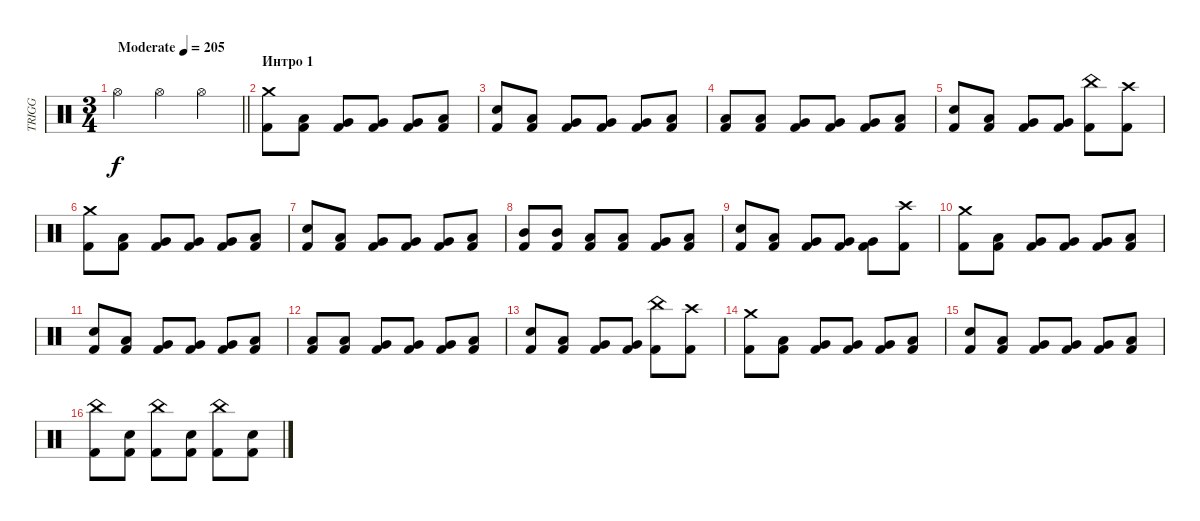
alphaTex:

\track ("TRIGG" "TRIGG") {instrument percussion}
\staff {score}
\articulation defaults
\ts (3 4)
\tempo (205 "Moderate")
\clef neutral
\barLineRight lightlight
\ks c "Hi-Hat (open)".4{dy f} "Hi-Hat (open)".4 "Hi-Hat (open)".4
|
\section ("" "Интро 1")
("Crash medium (hit)" "Kick (hit) 2").8 ("Low Tom (hit)" "Kick (hit) 2").8 ("Very Low Tom (hit)" "Kick (hit) 2").8 ("Very Low Tom (hit)" "Kick (hit) 2").8 ("Very Low Tom (hit)" "Kick (hit) 2").8 ("Low Tom (hit)" "Kick (hit) 2").8 |
("Electric Snare (hit)" "Kick (hit) 2").8 ("Low Tom (hit)" "Kick (hit) 2").8 ("Very Low Tom (hit)" "Kick (hit) 2").8 ("Very Low Tom (hit)" "Kick (hit) 2").8 ("Very Low Tom (hit)" "Kick (hit) 2").8 ("Low Tom (hit)" "Kick (hit) 2").8 |
("Low Tom (hit)" "Kick (hit) 2").8 ("Low Tom (hit)" "Kick (hit) 2").8 ("Very Low Tom (hit)" "Kick (hit) 2").8 ("Very Low Tom (hit)" "Kick (hit) 2").8 ("Very Low Tom (hit)" "Kick (hit) 2").8 ("Low Tom (hit)" "Kick (hit) 2").8 |
("Electric Snare (hit)" "Kick (hit) 2").8 ("Low Tom (hit)" "Kick (hit) 2").8 ("Very Low Tom (hit)" "Kick (hit) 2").8 ("Very Low Tom (hit)" "Kick (hit) 2").8 ("China (hit)" "Kick (hit) 2").8 ("Crash high (hit)" "Kick (hit) 2").8 |
("Crash medium (hit)" "Kick (hit) 2").8 ("Low Tom (hit)" "Kick (hit) 2").8 ("Very Low Tom (hit)" "Kick (hit) 2").8 ("Very Low Tom (hit)" "Kick (hit) 2").8 ("Very Low Tom (hit)" "Kick (hit) 2").8 ("Low Tom (hit)" "Kick (hit) 2").8 |
("Electric Snare (hit)" "Kick (hit) 2").8 ("Low Tom (hit)" "Kick (hit) 2").8 ("Very Low Tom (hit)" "Kick (hit) 2").8 ("Very Low Tom (hit)" "Kick (hit) 2").8 ("Very Low Tom (hit)" "Kick (hit) 2").8 ("Low Tom (hit)" "Kick (hit) 2").8 |
("Mid Tom (hit)" "Kick (hit) 2").8 ("Mid Tom (hit)" "Kick (hit) 2").8 ("Low Tom (hit)" "Kick (hit) 2").8 ("Low Tom (hit)" "Kick (hit) 2").8 ("Very Low Tom (hit)" "Kick (hit) 2").8 ("Low Tom (hit)" "Kick (hit) 2").8 |
("Electric Snare (hit)" "Kick (hit) 2").8 ("Low Tom (hit)" "Kick (hit) 2").8 ("Very Low Tom (hit)" "Kick (hit) 2").8 ("Very Low Tom (hit)" "Kick (hit) 2").8 ("Very Low Tom (hit)" "Kick (hit) 2").8 ("Crash high (hit)" "Kick (hit) 2").8 |
("Crash medium (hit)" "Kick (hit) 2").8 ("Low Tom (hit)" "Kick (hit) 2").8 ("Very Low Tom (hit)" "Kick (hit) 2").8 ("Very Low Tom (hit)" "Kick (hit) 2").8 ("Very Low Tom (hit)" "Kick (hit) 2").8 ("Low Tom (hit)" "Kick (hit) 2").8 |
("Electric Snare (hit)" "Kick (hit) 2").8 ("Low Tom (hit)" "Kick (hit) 2").8 ("Very Low Tom (hit)" "Kick (hit) 2").8 ("Very Low Tom (hit)" "Kick (hit) 2").8 ("Very Low Tom (hit)" "Kick (hit) 2").8 ("Low Tom (hit)" "Kick (hit) 2").8 |
("Low Tom (hit)" "Kick (hit) 2").8 ("Low Tom (hit)" "Kick (hit) 2").8 ("Very Low Tom (hit)" "Kick (hit) 2").8 ("Very Low Tom (hit)" "Kick (hit) 2").8 ("Very Low Tom (hit)" "Kick (hit) 2").8 ("Low Tom (hit)" "Kick (hit) 2").8 |
("Electric Snare (hit)" "Kick (hit) 2").8 ("Low Tom (hit)" "Kick (hit) 2").8 ("Very Low Tom (hit)" "Kick (hit) 2").8 ("Very Low Tom (hit)" "Kick (hit) 2").8 ("China (hit)" "Kick (hit) 2").8 ("Crash high (hit)" "Kick (hit) 2").8 |
("Crash medium (hit)" "Kick (hit) 2").8 ("Low Tom (hit)" "Kick (hit) 2").8 ("Very Low Tom (hit)" "Kick (hit) 2").8 ("Very Low Tom (hit)" "Kick (hit) 2").8 ("Very Low Tom (hit)" "Kick (hit) 2").8 ("Low Tom (hit)" "Kick (hit) 2").8 |
("Electric Snare (hit)" "Kick (hit) 2").8 ("Low Tom (hit)" "Kick (hit) 2").8 ("Very Low Tom (hit)" "Kick (hit) 2").8 ("Very Low Tom (hit)" "Kick (hit) 2").8 ("Very Low Tom (hit)" "Kick (hit) 2").8 ("Low Tom (hit)" "Kick (hit) 2").8 |
("China (hit)" "Kick (hit) 2").8 ("Electric Snare (hit)" "Kick (hit) 2").8 ("China (hit)" "Kick (hit) 2").8 ("Electric Snare (hit)" "Kick (hit) 2").8 ("China (hit)" "Kick (hit) 2").8 ("Electric Snare (hit)" "Kick (hit) 2").8
